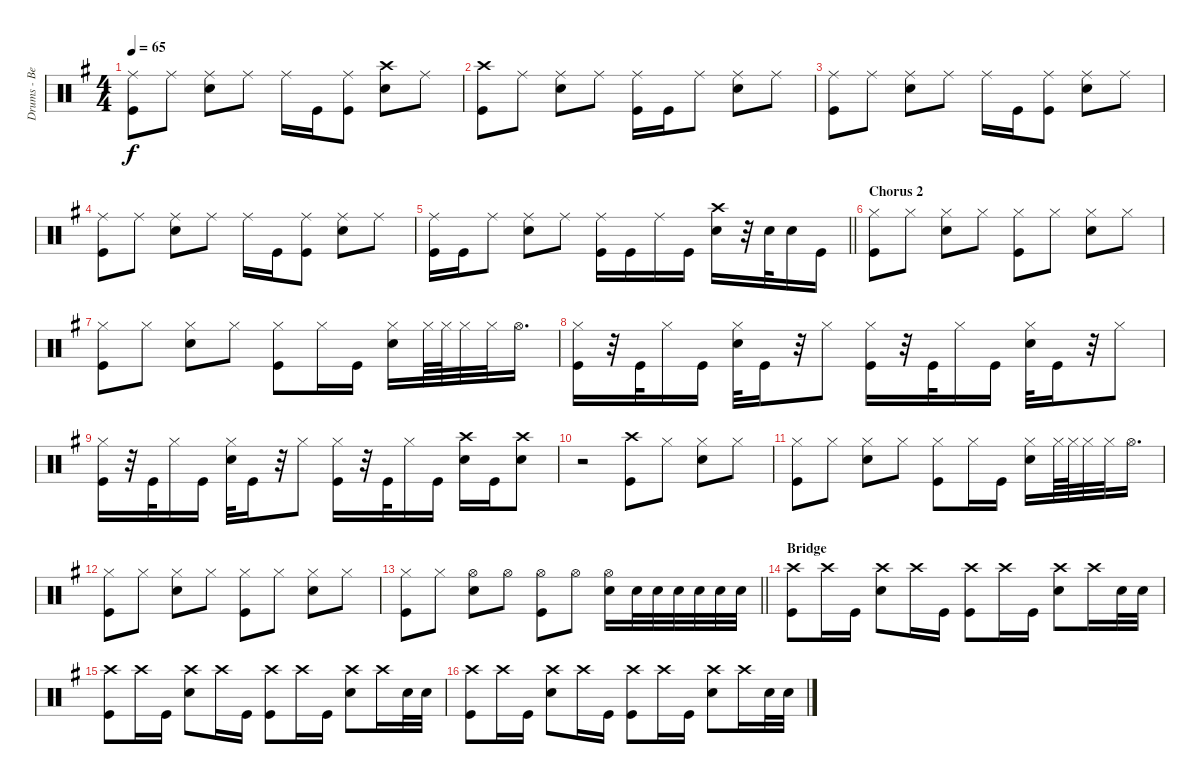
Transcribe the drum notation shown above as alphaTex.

\track ("Drums - Ben Johnston" "Drums - Be") {instrument percussion}
\staff {score}
\articulation defaults
\ts (4 4)
\tempo 65
\clef neutral
\ks g
("Ride (middle)" "Kick (hit)").8{dy f} "Ride (middle)".8 ("Ride (middle)" "Snare (hit) 2").8 "Ride (middle)".8 "Ride (middle)".16 "Kick (hit)".16 ("Ride (middle)" "Kick (hit)").8 ("Crash high (hit)" "Snare (hit) 2").8 "Ride (middle)".8 |
("Crash high (hit)" "Kick (hit)").8 "Ride (middle)".8 ("Ride (middle)" "Snare (hit) 2").8 "Ride (middle)".8 ("Ride (middle)" "Kick (hit)").16 "Kick (hit)".16 "Ride (middle)".8 ("Ride (middle)" "Snare (hit) 2").8 "Ride (middle)".8 |
("Ride (middle)" "Kick (hit)").8 "Ride (middle)".8 ("Ride (middle)" "Snare (hit) 2").8 "Ride (middle)".8 "Ride (middle)".16 "Kick (hit)".16 ("Ride (middle)" "Kick (hit)").8 ("Ride (middle)" "Snare (hit) 2").8 "Ride (middle)".8 |
("Ride (middle)" "Kick (hit)").8 "Ride (middle)".8 ("Ride (middle)" "Snare (hit) 2").8 "Ride (middle)".8 "Ride (middle)".16 "Kick (hit)".16 ("Ride (middle)" "Kick (hit)").8 ("Ride (middle)" "Snare (hit) 2").8 "Ride (middle)".8 |
\barLineRight lightlight
("Ride (middle)" "Kick (hit)").16 "Kick (hit)".16 "Ride (middle)".8 ("Ride (middle)" "Snare (hit) 2").8 "Ride (middle)".8 ("Ride (middle)" "Kick (hit)").16 "Kick (hit)".16 "Ride (middle)".16 "Kick (hit)".16 ("Crash high (hit)" "Snare (hit) 2").16 r.32 "Snare (hit) 2".32 "Snare (hit) 2".16 "Kick (hit)".16 |
\section ("" "Chorus 2")
("Hi-Hat (closed)" "Kick (hit)").8 "Hi-Hat (closed)".8 ("Hi-Hat (closed)" "Snare (hit) 2").8 "Hi-Hat (closed)".8 ("Hi-Hat (closed)" "Kick (hit)").8 "Hi-Hat (closed)".8 ("Hi-Hat (closed)" "Snare (hit) 2").8 "Hi-Hat (closed)".8 |
("Hi-Hat (closed)" "Kick (hit)").8 "Hi-Hat (closed)".8 ("Hi-Hat (closed)" "Snare (hit) 2").8 "Hi-Hat (closed)".8 ("Hi-Hat (closed)" "Kick (hit)").8 "Hi-Hat (closed)".16 "Kick (hit)".16 ("Hi-Hat (closed)" "Snare (hit) 2").16 "Hi-Hat (closed)".64 "Hi-Hat (closed)".64 "Hi-Hat (closed)".32 "Hi-Hat (closed)".32 "Hi-Hat (open)".16{d} |
("Hi-Hat (closed)" "Kick (hit)").16 r.32 "Kick (hit)".32 "Hi-Hat (closed)".16 "Kick (hit)".16 ("Hi-Hat (closed)" "Snare (hit) 2").32 "Kick (hit)".16 r.32 "Hi-Hat (closed)".8 ("Hi-Hat (closed)" "Kick (hit)").16 r.32 "Kick (hit)".32 "Hi-Hat (closed)".16 "Kick (hit)".16 ("Hi-Hat (closed)" "Snare (hit) 2").32 "Kick (hit)".16 r.32 "Hi-Hat (closed)".8 |
("Hi-Hat (closed)" "Kick (hit)").16 r.32 "Kick (hit)".32 "Hi-Hat (closed)".16 "Kick (hit)".16 ("Hi-Hat (closed)" "Snare (hit) 2").32 "Kick (hit)".16 r.32 "Hi-Hat (closed)".8 ("Hi-Hat (closed)" "Kick (hit)").16 r.32 "Kick (hit)".32 "Hi-Hat (closed)".16 "Kick (hit)".16 ("Crash high (hit)" "Snare (hit) 2").16 "Kick (hit)".16 ("Crash high (hit)" "Snare (hit) 2").8 |
r.2 ("Crash high (hit)" "Kick (hit)").8 "Hi-Hat (closed)".8 ("Hi-Hat (closed)" "Snare (hit) 2").8 "Hi-Hat (closed)".8 |
("Hi-Hat (closed)" "Kick (hit)").8 "Hi-Hat (closed)".8 ("Hi-Hat (closed)" "Snare (hit) 2").8 "Hi-Hat (closed)".8 ("Hi-Hat (closed)" "Kick (hit)").8 "Hi-Hat (closed)".16 "Kick (hit)".16 ("Hi-Hat (closed)" "Snare (hit) 2").16 "Hi-Hat (closed)".64 "Hi-Hat (closed)".64 "Hi-Hat (closed)".32 "Hi-Hat (closed)".32 "Hi-Hat (open)".16{d} |
("Hi-Hat (closed)" "Kick (hit)").8 "Hi-Hat (closed)".8 ("Hi-Hat (closed)" "Snare (hit) 2").8 "Hi-Hat (closed)".8 ("Hi-Hat (closed)" "Kick (hit)").8 "Hi-Hat (closed)".8 ("Hi-Hat (closed)" "Snare (hit) 2").8 "Hi-Hat (closed)".8 |
\barLineRight lightlight
("Hi-Hat (closed)" "Kick (hit)").8 "Hi-Hat (closed)".8 ("Hi-Hat (open)" "Snare (hit) 2").8 "Hi-Hat (open)".8 ("Hi-Hat (open)" "Kick (hit)").8 "Hi-Hat (open)".8 ("Hi-Hat (open)" "Snare (hit) 2").16 "Snare (hit) 2".32 "Snare (hit) 2".32 "Snare (hit) 2".32 "Snare (hit) 2".32 "Snare (hit) 2".32 "Snare (hit) 2".32 |
\section ("" "Bridge")
("Crash high (hit)" "Kick (hit)").8 "Crash high (hit)".16 "Kick (hit)".16 ("Crash high (hit)" "Snare (hit) 2").8 "Crash high (hit)".16 "Kick (hit)".16 ("Crash high (hit)" "Kick (hit)").8 "Crash high (hit)".16 "Kick (hit)".16 ("Crash high (hit)" "Snare (hit) 2").8 "Crash high (hit)".16 "Snare (hit) 2".32 "Snare (hit) 2".32 |
("Crash high (hit)" "Kick (hit)").8 "Crash high (hit)".16 "Kick (hit)".16 ("Crash high (hit)" "Snare (hit) 2").8 "Crash high (hit)".16 "Kick (hit)".16 ("Crash high (hit)" "Kick (hit)").8 "Crash high (hit)".16 "Kick (hit)".16 ("Crash high (hit)" "Snare (hit) 2").8 "Crash high (hit)".16 "Snare (hit) 2".32 "Snare (hit) 2".32 |
("Crash high (hit)" "Kick (hit)").8 "Crash high (hit)".16 "Kick (hit)".16 ("Crash high (hit)" "Snare (hit) 2").8 "Crash high (hit)".16 "Kick (hit)".16 ("Crash high (hit)" "Kick (hit)").8 "Crash high (hit)".16 "Kick (hit)".16 ("Crash high (hit)" "Snare (hit) 2").8 "Crash high (hit)".16 "Snare (hit) 2".32 "Snare (hit) 2".32
